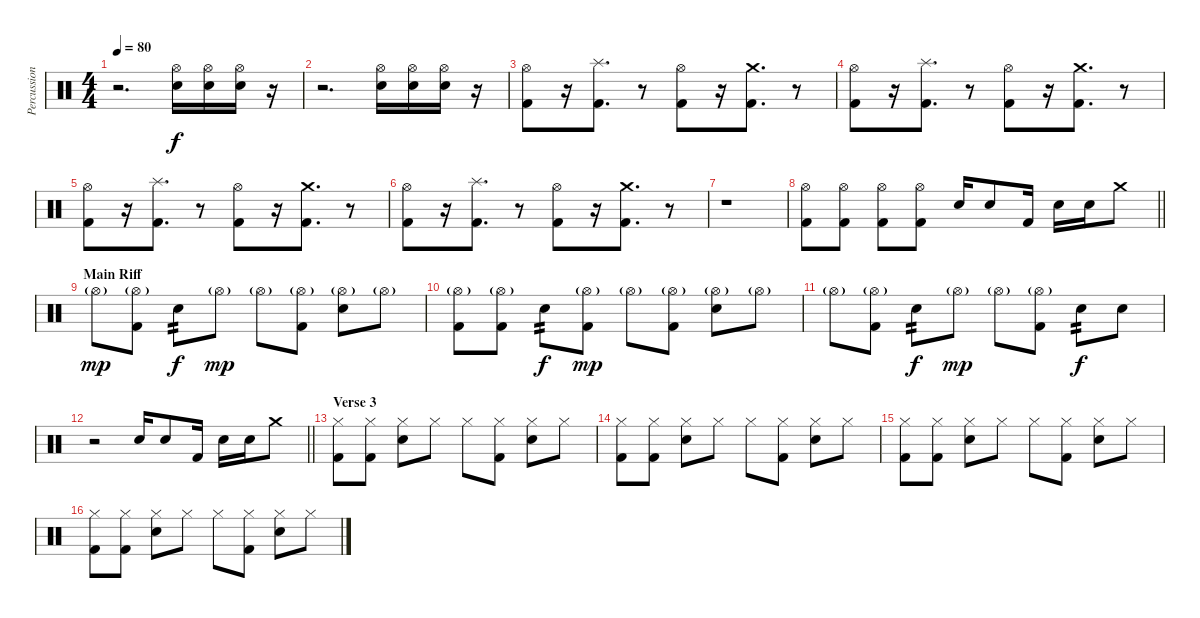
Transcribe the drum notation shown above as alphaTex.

\track ("Percussion" "Percussion") {instrument percussion}
\staff {score}
\articulation defaults
\ts (4 4)
\tempo 80
\clef neutral
\ks c
r.2{d dy f} ("Hi-Hat (open)" "Snare (hit) 2").16 ("Hi-Hat (open)" "Snare (hit) 2").16 ("Hi-Hat (open)" "Snare (hit) 2").16 r.16 |
r.2{d} ("Hi-Hat (open)" "Snare (hit) 2").16 ("Hi-Hat (open)" "Snare (hit) 2").16 ("Hi-Hat (open)" "Snare (hit) 2").16 r.16 |
("Hi-Hat (open)" "Kick (hit) 2").8 r.16 ("Splash (hit)" "Kick (hit) 2").8{d} r.8 ("Hi-Hat (open)" "Kick (hit) 2").8 r.16 ("Crash medium (hit)" "Kick (hit) 2").8{d} r.8 |
("Hi-Hat (open)" "Kick (hit) 2").8 r.16 ("Splash (hit)" "Kick (hit) 2").8{d} r.8 ("Hi-Hat (open)" "Kick (hit) 2").8 r.16 ("Crash medium (hit)" "Kick (hit) 2").8{d} r.8 |
("Hi-Hat (open)" "Kick (hit) 2").8 r.16 ("Splash (hit)" "Kick (hit) 2").8{d} r.8 ("Hi-Hat (open)" "Kick (hit) 2").8 r.16 ("Crash medium (hit)" "Kick (hit) 2").8{d} r.8 |
("Hi-Hat (open)" "Kick (hit) 2").8 r.16 ("Splash (hit)" "Kick (hit) 2").8{d} r.8 ("Hi-Hat (open)" "Kick (hit) 2").8 r.16 ("Crash medium (hit)" "Kick (hit) 2").8{d} r.8 |
r.1 |
\barLineRight lightlight
("Hi-Hat (open)" "Kick (hit) 2").8 ("Hi-Hat (open)" "Kick (hit) 2").8 ("Hi-Hat (open)" "Kick (hit) 2").8 ("Hi-Hat (open)" "Kick (hit) 2").8 "Snare (hit) 2".16 "Snare (hit) 2".8 "Kick (hit) 2".16 "Snare (hit) 2".16 "Snare (hit) 2".16 "Crash medium (hit)".8 |
\section ("" "Main Riff")
"Hi-Hat (open)"{g}.8{dy mp volume 10} ("Hi-Hat (open)"{g} "Kick (hit) 2").8 "Snare (hit) 2".8{tp 2 dy f} "Hi-Hat (open)"{g}.8{dy mp} "Hi-Hat (open)"{g}.8 ("Hi-Hat (open)"{g} "Kick (hit) 2").8 ("Hi-Hat (open)"{g} "Snare (hit) 2").8 "Hi-Hat (open)"{g}.8 |
("Hi-Hat (open)"{g} "Kick (hit) 2").8 ("Hi-Hat (open)"{g} "Kick (hit) 2").8 "Snare (hit) 2".8{tp 2 dy f} ("Hi-Hat (open)"{g} "Kick (hit) 2").8{dy mp} "Hi-Hat (open)"{g}.8 ("Hi-Hat (open)"{g} "Kick (hit) 2").8 ("Hi-Hat (open)"{g} "Snare (hit) 2").8 "Hi-Hat (open)"{g}.8 |
"Hi-Hat (open)"{g}.8 ("Hi-Hat (open)"{g} "Kick (hit) 2").8 "Snare (hit) 2".8{tp 2 dy f} "Hi-Hat (open)"{g}.8{dy mp} "Hi-Hat (open)"{g}.8 ("Hi-Hat (open)"{g} "Kick (hit) 2").8 "Snare (hit) 2".8{tp 2 dy f} "Snare (hit) 2".8 |
\barLineRight lightlight
r.2 "Snare (hit) 2".16 "Snare (hit) 2".8 "Kick (hit) 2".16 "Snare (hit) 2".16 "Snare (hit) 2".16 "Crash medium (hit)".8 |
\section ("" "Verse 3")
("Hi-Hat (closed)" "Kick (hit) 2").8 ("Hi-Hat (closed)" "Kick (hit) 2").8 ("Hi-Hat (closed)" "Snare (hit) 2").8 "Hi-Hat (closed)".8 "Hi-Hat (closed)".8 ("Hi-Hat (closed)" "Kick (hit) 2").8 ("Hi-Hat (closed)" "Snare (hit) 2").8 "Hi-Hat (closed)".8 |
("Hi-Hat (closed)" "Kick (hit) 2").8 ("Hi-Hat (closed)" "Kick (hit) 2").8 ("Hi-Hat (closed)" "Snare (hit) 2").8 "Hi-Hat (closed)".8 "Hi-Hat (closed)".8 ("Hi-Hat (closed)" "Kick (hit) 2").8 ("Hi-Hat (closed)" "Snare (hit) 2").8 "Hi-Hat (closed)".8 |
("Hi-Hat (closed)" "Kick (hit) 2").8 ("Hi-Hat (closed)" "Kick (hit) 2").8 ("Hi-Hat (closed)" "Snare (hit) 2").8 "Hi-Hat (closed)".8 "Hi-Hat (closed)".8 ("Hi-Hat (closed)" "Kick (hit) 2").8 ("Hi-Hat (closed)" "Snare (hit) 2").8 "Hi-Hat (closed)".8 |
("Hi-Hat (closed)" "Kick (hit) 2").8 ("Hi-Hat (closed)" "Kick (hit) 2").8 ("Hi-Hat (closed)" "Snare (hit) 2").8 "Hi-Hat (closed)".8 "Hi-Hat (closed)".8 ("Hi-Hat (closed)" "Kick (hit) 2").8 ("Hi-Hat (closed)" "Snare (hit) 2").8 "Hi-Hat (closed)".8
